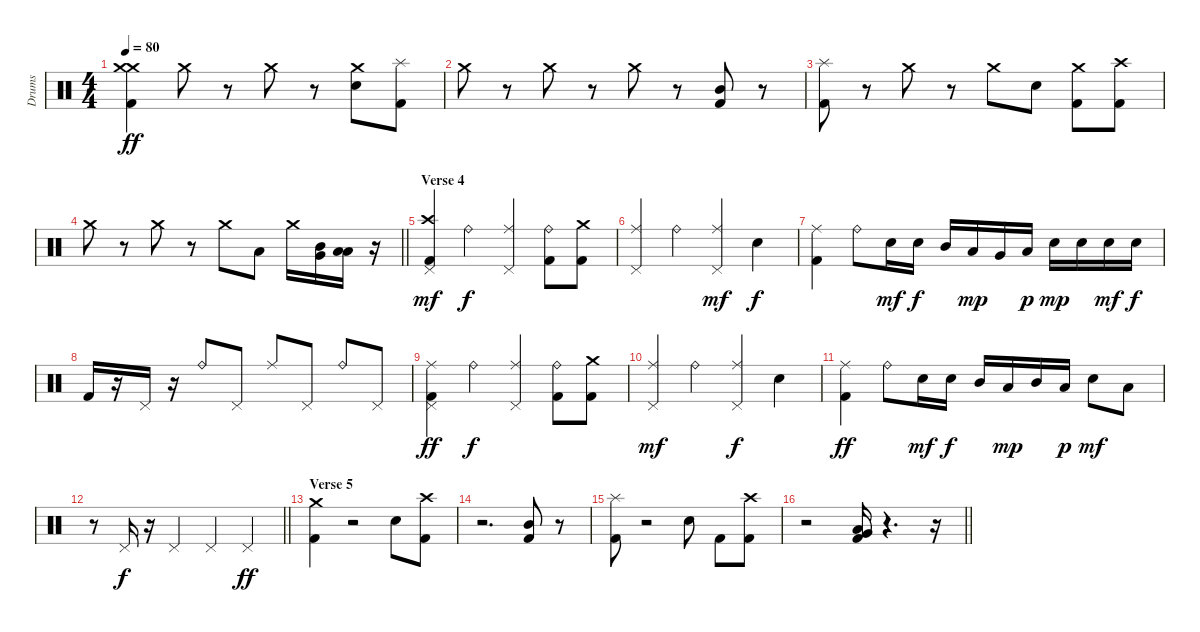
\track ("Drums" "Drums") {instrument percussion}
\staff {score}
\articulation defaults
\ts (4 4)
\tempo 80
\clef neutral
\ks c
("Crash medium (hit)" "Kick (hit) 2" "Crash medium (hit)").4{dy ff} "Crash medium (hit)".8 r.8 "Crash medium (hit)".8 r.8 ("Snare (hit) 2" "Crash medium (hit)").8 ("Kick (hit) 2" "Splash (hit)").8 |
"Crash medium (hit)".8 r.8 "Crash medium (hit)".8 r.8 "Crash medium (hit)".8 r.8 ("Kick (hit) 2" "Mid Tom (hit)").8 r.8 |
("Kick (hit) 2" "Splash (hit)").8 r.8 "Crash medium (hit)".8 r.8 "Crash medium (hit)".8 "Snare (hit) 2".8 ("Kick (hit) 2" "Crash medium (hit)").8 ("Kick (hit) 2" "Crash high (hit)").8 |
\barLineRight lightlight "Crash medium (hit)".8
r.8 "Crash medium (hit)".8 r.8 "Crash medium (hit)".8 "Low Tom (hit)".8 "Crash medium (hit)".16 ("Very Low Tom (hit)" "Mid Tom (hit)").16 ("Low Floor Tom (hit)" "Low Tom (hit)").16 r.16 |
\section ("" "Verse 4")
("Pedal Hi-Hat (hit)" "Crash high (hit)" "Kick (hit) 2").4{dy mf} "Ride (bell)".4{dy f} ("Pedal Hi-Hat (hit)" "Ride (middle)").4 ("Kick (hit) 2" "Ride (bell)").8 ("Crash medium (hit)" "Kick (hit) 2").8 |
("Pedal Hi-Hat (hit)" "Ride (middle)").4 "Ride (bell)".4 ("Pedal Hi-Hat (hit)" "Ride (middle)").4{dy mf} "Snare (hit) 2".4{dy f} |
("Kick (hit) 2" "Ride (middle)").4 "Ride (bell)".8 "Snare (hit) 2".16{dy mf} "Snare (hit) 2".16{dy f} "Mid Tom (hit)".16 "Low Tom (hit)".16{dy mp} "Very Low Tom (hit)".16 "Low Floor Tom (hit)".16{dy p} "Snare (hit) 2".16{dy mp} "Snare (hit) 2".16 "Snare (hit) 2".16{dy mf} "Snare (hit) 2".16{dy f} |
"Kick (hit) 2".16 r.16 "Pedal Hi-Hat (hit)".16 r.16 "Ride (bell)".8 "Pedal Hi-Hat (hit)".8 "Ride (middle)".8 "Pedal Hi-Hat (hit)".8 "Ride (bell)".8 "Pedal Hi-Hat (hit)".8 |
("Pedal Hi-Hat (hit)" "Kick (hit) 2" "Ride (middle)").4{dy ff} "Ride (bell)".4{dy f} ("Pedal Hi-Hat (hit)" "Ride (middle)").4 ("Kick (hit) 2" "Ride (bell)").8 ("Crash medium (hit)" "Kick (hit) 2").8 |
("Pedal Hi-Hat (hit)" "Ride (middle)").4{dy mf} "Ride (bell)".4 ("Pedal Hi-Hat (hit)" "Ride (middle)").4{dy f} "Snare (hit) 2".4 |
("Kick (hit) 2" "Ride (middle)").4{dy ff} "Ride (bell)".8 "Snare (hit) 2".16{dy mf} "Snare (hit) 2".16{dy f} "Mid Tom (hit)".16 "Low Tom (hit)".16{dy mp} "Mid Tom (hit)".16 "Low Tom (hit)".16{dy p} "Snare (hit) 2".8{dy mf} "Low Tom (hit)".8 |
\barLineRight lightlight
r.8 "Pedal Hi-Hat (hit)".16{dy f} r.16 "Pedal Hi-Hat (hit)".4 "Pedal Hi-Hat (hit)".4 "Pedal Hi-Hat (hit)".4{dy ff} |
\section ("" "Verse 5")
("Crash medium (hit)" "Kick (hit) 2").4 r.2 "Snare (hit) 2".8 ("Kick (hit) 2" "Crash high (hit)").8 |
r.2{d} ("Kick (hit) 2" "Mid Tom (hit)").8 r.8 |
("Kick (hit) 2" "Splash (hit)").8 r.2 "Snare (hit) 2".8 "Kick (hit) 2".8 ("Kick (hit) 2" "Crash high (hit)").8 |
\barLineRight lightlight
r.2 ("Very Low Tom (hit)" "Kick (hit) 2" "Low Tom (hit)").16 r.4{d} r.16
